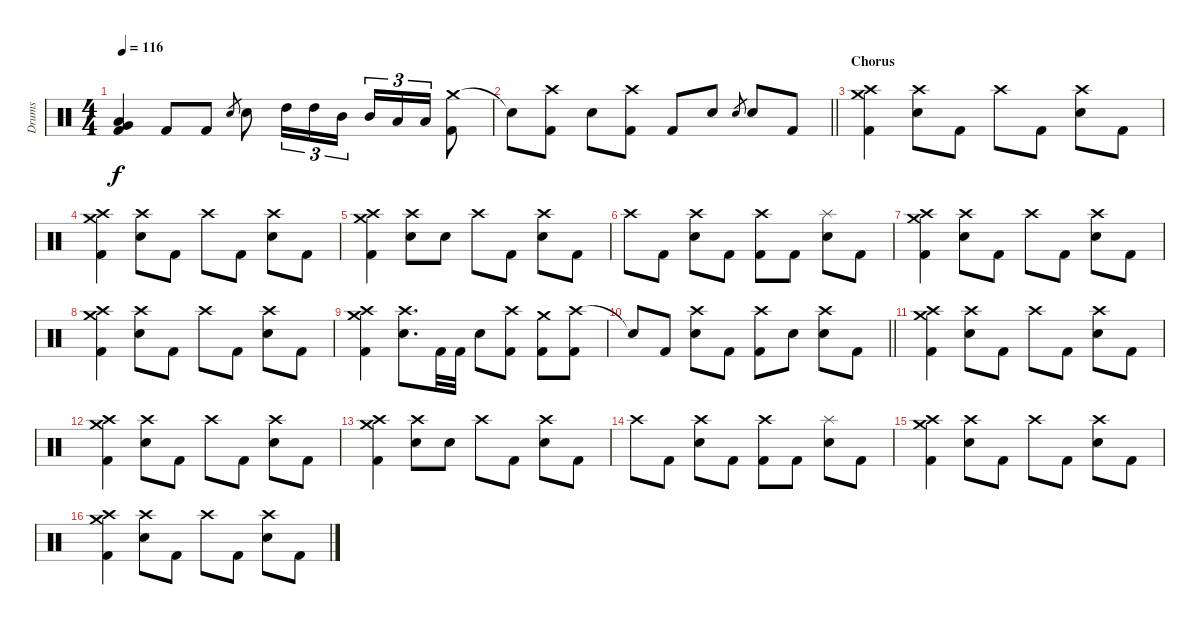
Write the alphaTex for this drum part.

\track ("Drums" "Drums") {instrument percussion}
\staff {score}
\articulation defaults
\ts (4 4)
\tempo 116
\clef neutral
\ks c
("Very Low Tom (hit)" "Low Floor Tom (hit)" "Kick (hit) 2").4{dy f} "Kick (hit) 2".8 "Kick (hit) 2".8 "Electric Snare (hit)".8{gr} "Electric Snare (hit)".8 "High Tom (hit)".16{tu (3 2)} "High Tom (hit)".16{tu (3 2)} "Mid Tom (hit)".16{tu (3 2)} "Mid Tom (hit)".16{tu (3 2)} "Low Tom (hit)".16{tu (3 2)} "Low Tom (hit)".16{tu (3 2)} ("Crash medium (hit)" "Kick (hit) 2").8 |
\barLineRight lightlight "Snare (hit)"{t}.8
("Crash high (hit)" "Kick (hit) 2").8 "Electric Snare (hit)".8 ("Crash high (hit)" "Kick (hit) 2").8 "Kick (hit) 2".8 "Electric Snare (hit)".8 "Electric Snare (hit)".8{gr} "Electric Snare (hit)".8 "Kick (hit) 2".8 |
\section ("" "Chorus")
("Crash medium (hit)" "Crash high (hit)" "Kick (hit) 2").4 ("Crash high (hit)" "Electric Snare (hit)").8 "Kick (hit) 2".8 "Crash high (hit)".8 "Kick (hit) 2".8 ("Crash high (hit)" "Electric Snare (hit)").8 "Kick (hit) 2".8 |
("Crash medium (hit)" "Crash high (hit)" "Kick (hit) 2").4 ("Crash high (hit)" "Electric Snare (hit)").8 "Kick (hit) 2".8 "Crash high (hit)".8 "Kick (hit) 2".8 ("Crash high (hit)" "Electric Snare (hit)").8 "Kick (hit) 2".8 |
("Crash medium (hit)" "Crash high (hit)" "Kick (hit) 2").4 ("Crash high (hit)" "Electric Snare (hit)").8 "Electric Snare (hit)".8 "Crash high (hit)".8 "Kick (hit) 2".8 ("Crash high (hit)" "Electric Snare (hit)").8 "Kick (hit) 2".8 |
"Crash high (hit)".8 "Kick (hit) 2".8 ("Crash high (hit)" "Electric Snare (hit)").8 "Kick (hit) 2".8 ("Crash high (hit)" "Kick (hit) 2").8 "Kick (hit) 2".8 ("Splash (hit)" "Electric Snare (hit)").8 "Kick (hit) 2".8 |
("Crash medium (hit)" "Crash high (hit)" "Kick (hit) 2").4 ("Crash high (hit)" "Electric Snare (hit)").8 "Kick (hit) 2".8 "Crash high (hit)".8 "Kick (hit) 2".8 ("Crash high (hit)" "Electric Snare (hit)").8 "Kick (hit) 2".8 |
("Crash medium (hit)" "Crash high (hit)" "Kick (hit) 2").4 ("Crash high (hit)" "Electric Snare (hit)").8 "Kick (hit) 2".8 "Crash high (hit)".8 "Kick (hit) 2".8 ("Crash high (hit)" "Electric Snare (hit)").8 "Kick (hit) 2".8 |
("Crash medium (hit)" "Crash high (hit)" "Kick (hit) 2").4 ("Crash high (hit)" "Electric Snare (hit)").8{d} "Kick (hit) 2".32 "Kick (hit) 2".32 "Electric Snare (hit)".8 ("Crash high (hit)" "Kick (hit) 2").8 ("Crash medium (hit)" "Kick (hit) 2").8 ("Crash high (hit)" "Kick (hit) 2").8 |
\barLineRight lightlight "Snare (hit)"{t}.8 "Kick (hit) 2".8
("Crash high (hit)" "Electric Snare (hit)").8 "Kick (hit) 2".8 ("Crash high (hit)" "Kick (hit) 2").8 "Electric Snare (hit)".8 ("Crash high (hit)" "Electric Snare (hit)").8 "Kick (hit) 2".8 |
("Crash medium (hit)" "Crash high (hit)" "Kick (hit) 2").4 ("Crash high (hit)" "Electric Snare (hit)").8 "Kick (hit) 2".8 "Crash high (hit)".8 "Kick (hit) 2".8 ("Crash high (hit)" "Electric Snare (hit)").8 "Kick (hit) 2".8 |
("Crash medium (hit)" "Crash high (hit)" "Kick (hit) 2").4 ("Crash high (hit)" "Electric Snare (hit)").8 "Kick (hit) 2".8 "Crash high (hit)".8 "Kick (hit) 2".8 ("Crash high (hit)" "Electric Snare (hit)").8 "Kick (hit) 2".8 |
("Crash medium (hit)" "Crash high (hit)" "Kick (hit) 2").4 ("Crash high (hit)" "Electric Snare (hit)").8 "Electric Snare (hit)".8 "Crash high (hit)".8 "Kick (hit) 2".8 ("Crash high (hit)" "Electric Snare (hit)").8 "Kick (hit) 2".8 |
"Crash high (hit)".8 "Kick (hit) 2".8 ("Crash high (hit)" "Electric Snare (hit)").8 "Kick (hit) 2".8 ("Crash high (hit)" "Kick (hit) 2").8 "Kick (hit) 2".8 ("Splash (hit)" "Electric Snare (hit)").8 "Kick (hit) 2".8 |
("Crash medium (hit)" "Crash high (hit)" "Kick (hit) 2").4{volume 0} ("Crash high (hit)" "Electric Snare (hit)").8 "Kick (hit) 2".8 "Crash high (hit)".8 "Kick (hit) 2".8 ("Crash high (hit)" "Electric Snare (hit)").8 "Kick (hit) 2".8 |
("Crash medium (hit)" "Crash high (hit)" "Kick (hit) 2").4 ("Crash high (hit)" "Electric Snare (hit)").8 "Kick (hit) 2".8 "Crash high (hit)".8 "Kick (hit) 2".8 ("Crash high (hit)" "Electric Snare (hit)").8 "Kick (hit) 2".8
